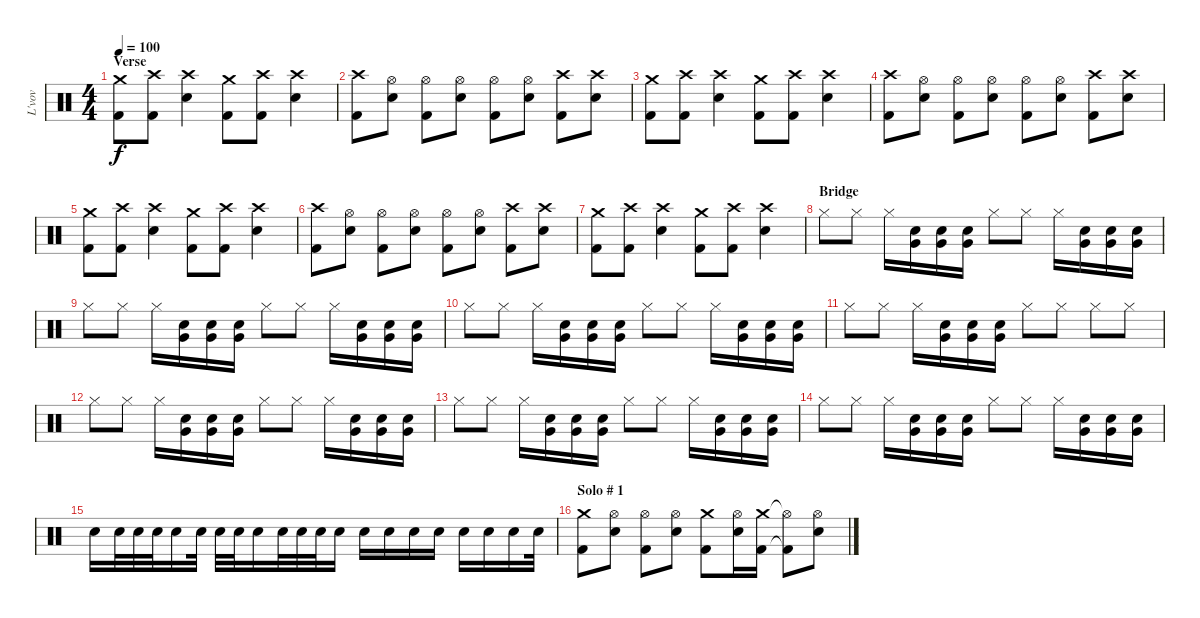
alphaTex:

\track ("L'vov" "L'vov") {instrument percussion}
\staff {score}
\articulation defaults
\ts (4 4)
\section ("" "Verse")
\tempo 100
\clef neutral
\ks c
("Kick (hit) 2" "Crash medium (hit)").8{dy f} ("Kick (hit) 2" "Crash high (hit)").8 ("Snare (hit) 2" "Crash high (hit)").4 ("Kick (hit) 2" "Crash medium (hit)").8 ("Kick (hit) 2" "Crash high (hit)").8 ("Snare (hit) 2" "Crash high (hit)").4 |
("Kick (hit) 2" "Crash high (hit)").8 ("Snare (hit) 2" "Hi-Hat (open)").8 ("Kick (hit) 2" "Hi-Hat (open)").8 ("Snare (hit) 2" "Hi-Hat (open)").8 ("Kick (hit) 2" "Hi-Hat (open)").8 ("Snare (hit) 2" "Hi-Hat (open)").8 ("Kick (hit) 2" "Crash high (hit)").8 ("Snare (hit) 2" "Crash high (hit)").8 |
("Kick (hit) 2" "Crash medium (hit)").8 ("Kick (hit) 2" "Crash high (hit)").8 ("Snare (hit) 2" "Crash high (hit)").4 ("Kick (hit) 2" "Crash medium (hit)").8 ("Kick (hit) 2" "Crash high (hit)").8 ("Snare (hit) 2" "Crash high (hit)").4 |
("Kick (hit) 2" "Crash high (hit)").8 ("Snare (hit) 2" "Hi-Hat (open)").8 ("Kick (hit) 2" "Hi-Hat (open)").8 ("Snare (hit) 2" "Hi-Hat (open)").8 ("Kick (hit) 2" "Hi-Hat (open)").8 ("Snare (hit) 2" "Hi-Hat (open)").8 ("Kick (hit) 2" "Crash high (hit)").8 ("Snare (hit) 2" "Crash high (hit)").8 |
("Kick (hit) 2" "Crash medium (hit)").8 ("Kick (hit) 2" "Crash high (hit)").8 ("Snare (hit) 2" "Crash high (hit)").4 ("Kick (hit) 2" "Crash medium (hit)").8 ("Kick (hit) 2" "Crash high (hit)").8 ("Snare (hit) 2" "Crash high (hit)").4 |
("Kick (hit) 2" "Crash high (hit)").8 ("Snare (hit) 2" "Hi-Hat (open)").8 ("Kick (hit) 2" "Hi-Hat (open)").8 ("Snare (hit) 2" "Hi-Hat (open)").8 ("Kick (hit) 2" "Hi-Hat (open)").8 ("Snare (hit) 2" "Hi-Hat (open)").8 ("Kick (hit) 2" "Crash high (hit)").8 ("Snare (hit) 2" "Crash high (hit)").8 |
("Kick (hit) 2" "Crash medium (hit)").8 ("Kick (hit) 2" "Crash high (hit)").8 ("Snare (hit) 2" "Crash high (hit)").4 ("Kick (hit) 2" "Crash medium (hit)").8 ("Kick (hit) 2" "Crash high (hit)").8 ("Snare (hit) 2" "Crash high (hit)").4 |
\section ("" "Bridge")
"Hi-Hat (closed)".8 "Hi-Hat (closed)".8 "Hi-Hat (closed)".16 ("Snare (hit) 2" "Very Low Tom (hit)").16 ("Snare (hit) 2" "Very Low Tom (hit)").16 ("Snare (hit) 2" "Very Low Tom (hit)").16 "Hi-Hat (closed)".8 "Hi-Hat (closed)".8 "Hi-Hat (closed)".16 ("Snare (hit) 2" "Very Low Tom (hit)").16 ("Snare (hit) 2" "Very Low Tom (hit)").16 ("Snare (hit) 2" "Very Low Tom (hit)").16 |
"Hi-Hat (closed)".8 "Hi-Hat (closed)".8 "Hi-Hat (closed)".16 ("Snare (hit) 2" "Very Low Tom (hit)").16 ("Snare (hit) 2" "Very Low Tom (hit)").16 ("Snare (hit) 2" "Very Low Tom (hit)").16 "Hi-Hat (closed)".8 "Hi-Hat (closed)".8 "Hi-Hat (closed)".16 ("Snare (hit) 2" "Very Low Tom (hit)").16 ("Snare (hit) 2" "Very Low Tom (hit)").16 ("Snare (hit) 2" "Very Low Tom (hit)").16 |
"Hi-Hat (closed)".8 "Hi-Hat (closed)".8 "Hi-Hat (closed)".16 ("Snare (hit) 2" "Very Low Tom (hit)").16 ("Snare (hit) 2" "Very Low Tom (hit)").16 ("Snare (hit) 2" "Very Low Tom (hit)").16 "Hi-Hat (closed)".8 "Hi-Hat (closed)".8 "Hi-Hat (closed)".16 ("Snare (hit) 2" "Very Low Tom (hit)").16 ("Snare (hit) 2" "Very Low Tom (hit)").16 ("Snare (hit) 2" "Very Low Tom (hit)").16 |
"Hi-Hat (closed)".8 "Hi-Hat (closed)".8 "Hi-Hat (closed)".16 ("Snare (hit) 2" "Very Low Tom (hit)").16 ("Snare (hit) 2" "Very Low Tom (hit)").16 ("Snare (hit) 2" "Very Low Tom (hit)").16 "Hi-Hat (closed)".8 "Hi-Hat (closed)".8 "Hi-Hat (closed)".8 "Hi-Hat (closed)".8 |
"Hi-Hat (closed)".8 "Hi-Hat (closed)".8 "Hi-Hat (closed)".16 ("Snare (hit) 2" "Very Low Tom (hit)").16 ("Snare (hit) 2" "Very Low Tom (hit)").16 ("Snare (hit) 2" "Very Low Tom (hit)").16 "Hi-Hat (closed)".8 "Hi-Hat (closed)".8 "Hi-Hat (closed)".16 ("Snare (hit) 2" "Very Low Tom (hit)").16 ("Snare (hit) 2" "Very Low Tom (hit)").16 ("Snare (hit) 2" "Very Low Tom (hit)").16 |
"Hi-Hat (closed)".8 "Hi-Hat (closed)".8 "Hi-Hat (closed)".16 ("Snare (hit) 2" "Very Low Tom (hit)").16 ("Snare (hit) 2" "Very Low Tom (hit)").16 ("Snare (hit) 2" "Very Low Tom (hit)").16 "Hi-Hat (closed)".8 "Hi-Hat (closed)".8 "Hi-Hat (closed)".16 ("Snare (hit) 2" "Very Low Tom (hit)").16 ("Snare (hit) 2" "Very Low Tom (hit)").16 ("Snare (hit) 2" "Very Low Tom (hit)").16 |
"Hi-Hat (closed)".8 "Hi-Hat (closed)".8 "Hi-Hat (closed)".16 ("Snare (hit) 2" "Very Low Tom (hit)").16 ("Snare (hit) 2" "Very Low Tom (hit)").16 ("Snare (hit) 2" "Very Low Tom (hit)").16 "Hi-Hat (closed)".8 "Hi-Hat (closed)".8 "Hi-Hat (closed)".16 ("Snare (hit) 2" "Very Low Tom (hit)").16 ("Snare (hit) 2" "Very Low Tom (hit)").16 ("Snare (hit) 2" "Very Low Tom (hit)").16 |
"Snare (hit) 2".16 "Snare (hit) 2".32 "Snare (hit) 2".32 "Snare (hit) 2".32 "Snare (hit) 2".16 "Snare (hit) 2".32 "Snare (hit) 2".32 "Snare (hit) 2".32 "Snare (hit) 2".16 "Snare (hit) 2".32 "Snare (hit) 2".32 "Snare (hit) 2".32 "Snare (hit) 2".16 "Snare (hit) 2".16 "Snare (hit) 2".16 "Snare (hit) 2".16 "Snare (hit) 2".16 "Snare (hit) 2".16 "Snare (hit) 2".16 "Snare (hit) 2".16 "Snare (hit) 2".32 |
\section ("" "Solo # 1")
("Kick (hit) 2" "Crash medium (hit)").8 ("Snare (hit) 2" "Hi-Hat (open)").8 ("Kick (hit) 2" "Hi-Hat (open)").8 ("Snare (hit) 2" "Hi-Hat (open)").8 ("Kick (hit) 2" "Crash medium (hit)").8 ("Snare (hit) 2" "Hi-Hat (open)").16 ("Kick (hit) 2" "Crash medium (hit)").16 ("Kick (hit) 2"{t} "Hi-Hat (open)"{t}).8 ("Snare (hit) 2" "Hi-Hat (open)").8
